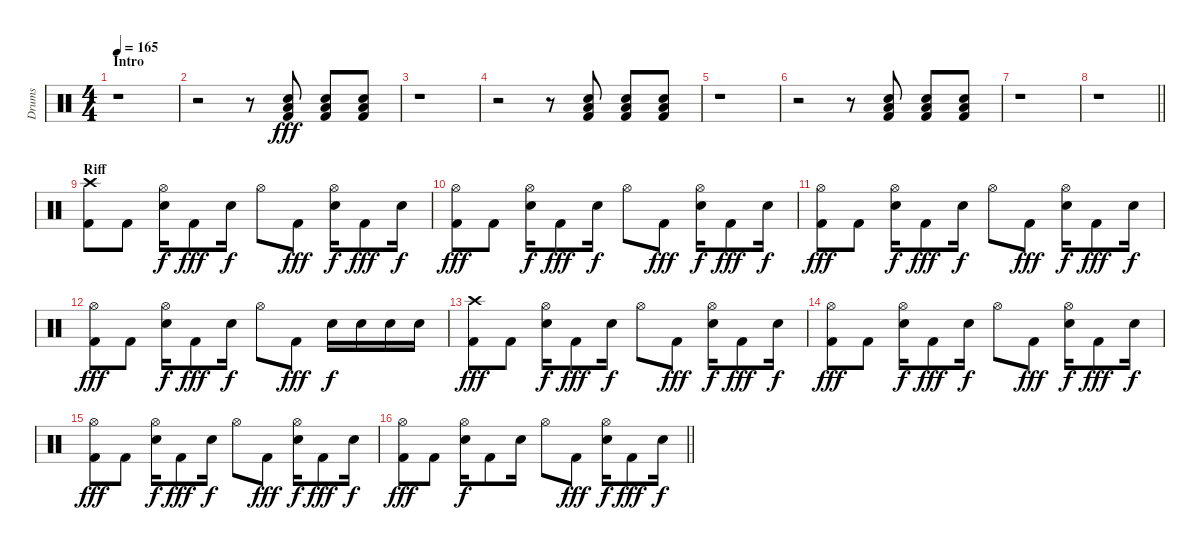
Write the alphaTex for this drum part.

\track ("Drums" "Drums") {instrument percussion}
\staff {score}
\articulation defaults
\ts (4 4)
\section ("" "Intro")
\tempo 165
\clef neutral
\ks c
r.1{dy fff} |
r.2 r.8 ("Snare (hit) 2" "Low Floor Tom (hit)" "Kick (hit) 2").8 ("Snare (hit) 2" "Low Floor Tom (hit)" "Kick (hit) 2").8 ("Snare (hit) 2" "Low Floor Tom (hit)" "Kick (hit) 2").8 |
r.1 |
r.2 r.8 ("Snare (hit) 2" "Low Floor Tom (hit)" "Kick (hit) 2").8 ("Snare (hit) 2" "Low Floor Tom (hit)" "Kick (hit) 2").8 ("Snare (hit) 2" "Low Floor Tom (hit)" "Kick (hit) 2").8 |
r.1 |
r.2 r.8 ("Snare (hit) 2" "Low Floor Tom (hit)" "Kick (hit) 2").8 ("Snare (hit) 2" "Low Floor Tom (hit)" "Kick (hit) 2").8 ("Snare (hit) 2" "Low Floor Tom (hit)" "Kick (hit) 2").8 |
r.1 |
\barLineRight lightlight
r.1 |
\section ("" "Riff")
("Crash high (hit)" "Kick (hit) 2").8 "Kick (hit) 2".8 ("Hi-Hat (open)" "Snare (hit) 2").16{dy f} "Kick (hit) 2".8{dy fff} "Snare (hit) 2".16{dy f} "Hi-Hat (open)".8 "Kick (hit) 2".8{dy fff} ("Hi-Hat (open)" "Snare (hit) 2").16{dy f} "Kick (hit) 2".8{dy fff} "Snare (hit) 2".16{dy f} |
("Hi-Hat (open)" "Kick (hit) 2").8{dy fff} "Kick (hit) 2".8 ("Hi-Hat (open)" "Snare (hit) 2").16{dy f} "Kick (hit) 2".8{dy fff} "Snare (hit) 2".16{dy f} "Hi-Hat (open)".8 "Kick (hit) 2".8{dy fff} ("Hi-Hat (open)" "Snare (hit) 2").16{dy f} "Kick (hit) 2".8{dy fff} "Snare (hit) 2".16{dy f} |
("Hi-Hat (open)" "Kick (hit) 2").8{dy fff} "Kick (hit) 2".8 ("Hi-Hat (open)" "Snare (hit) 2").16{dy f} "Kick (hit) 2".8{dy fff} "Snare (hit) 2".16{dy f} "Hi-Hat (open)".8 "Kick (hit) 2".8{dy fff} ("Hi-Hat (open)" "Snare (hit) 2").16{dy f} "Kick (hit) 2".8{dy fff} "Snare (hit) 2".16{dy f} |
("Hi-Hat (open)" "Kick (hit) 2").8{dy fff} "Kick (hit) 2".8 ("Hi-Hat (open)" "Snare (hit) 2").16{dy f} "Kick (hit) 2".8{dy fff} "Snare (hit) 2".16{dy f} "Hi-Hat (open)".8 "Kick (hit) 2".8{dy fff} "Snare (hit) 2".16{dy f} "Snare (hit) 2".16 "Snare (hit) 2".16 "Snare (hit) 2".16 |
("Crash high (hit)" "Kick (hit) 2").8{dy fff} "Kick (hit) 2".8 ("Hi-Hat (open)" "Snare (hit) 2").16{dy f} "Kick (hit) 2".8{dy fff} "Snare (hit) 2".16{dy f} "Hi-Hat (open)".8 "Kick (hit) 2".8{dy fff} ("Hi-Hat (open)" "Snare (hit) 2").16{dy f} "Kick (hit) 2".8{dy fff} "Snare (hit) 2".16{dy f} |
("Hi-Hat (open)" "Kick (hit) 2").8{dy fff} "Kick (hit) 2".8 ("Hi-Hat (open)" "Snare (hit) 2").16{dy f} "Kick (hit) 2".8{dy fff} "Snare (hit) 2".16{dy f} "Hi-Hat (open)".8 "Kick (hit) 2".8{dy fff} ("Hi-Hat (open)" "Snare (hit) 2").16{dy f} "Kick (hit) 2".8{dy fff} "Snare (hit) 2".16{dy f} |
("Hi-Hat (open)" "Kick (hit) 2").8{dy fff} "Kick (hit) 2".8 ("Hi-Hat (open)" "Snare (hit) 2").16{dy f} "Kick (hit) 2".8{dy fff} "Snare (hit) 2".16{dy f} "Hi-Hat (open)".8 "Kick (hit) 2".8{dy fff} ("Hi-Hat (open)" "Snare (hit) 2").16{dy f} "Kick (hit) 2".8{dy fff} "Snare (hit) 2".16{dy f} |
\barLineRight lightlight
("Hi-Hat (open)" "Kick (hit) 2").8{dy fff} "Kick (hit) 2".8 ("Hi-Hat (open)" "Snare (hit) 2").16{dy f} "Kick (hit) 2".8 "Snare (hit) 2".16 "Hi-Hat (open)".8 "Kick (hit) 2".8{dy fff} ("Hi-Hat (open)" "Snare (hit) 2").16{dy f} "Kick (hit) 2".8{dy fff} "Snare (hit) 2".16{dy f}
